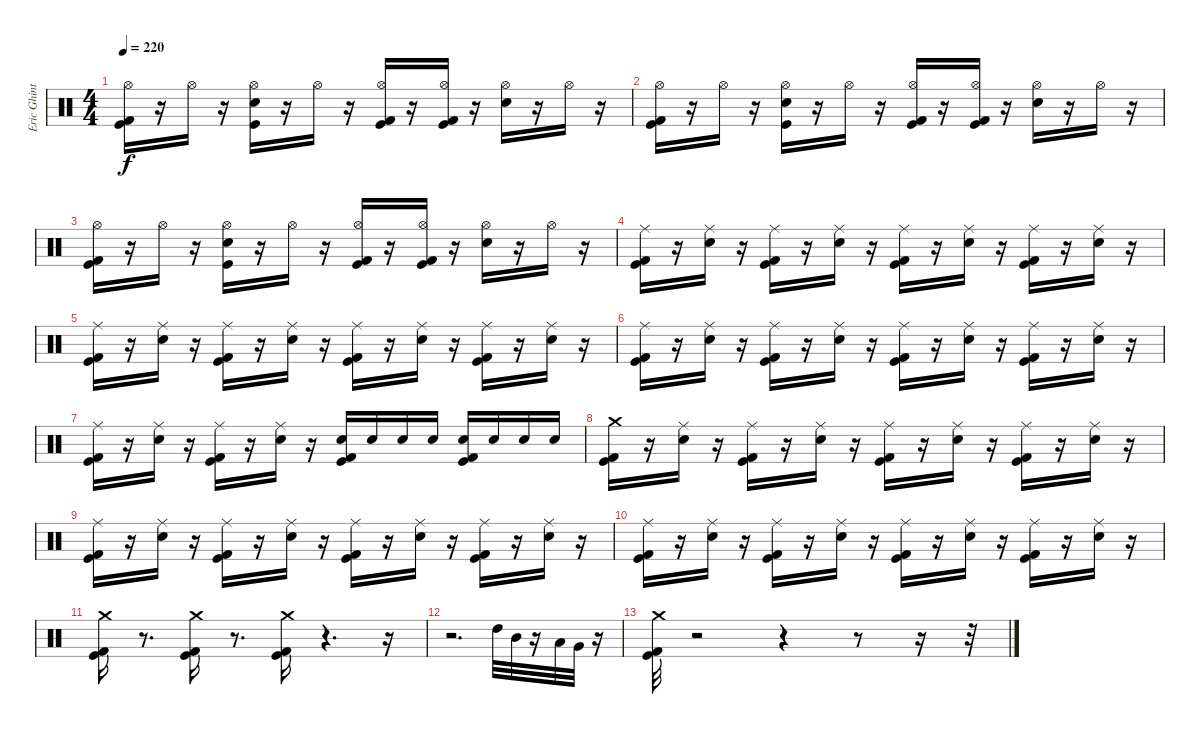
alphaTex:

\track ("Eric Ghint" "Eric Ghint") {instrument percussion}
\staff {score}
\articulation defaults
\ts (4 4)
\tempo 220
\clef neutral
\ks c
("Kick (hit) 2" "Hi-Hat (open)" "Kick (hit)").16{dy f} r.16 "Hi-Hat (open)".16 r.16 ("Snare (hit) 2" "Hi-Hat (open)" "Kick (hit)").16 r.16 "Hi-Hat (open)".16 r.16 ("Kick (hit) 2" "Hi-Hat (open)" "Kick (hit)").16 r.16 ("Kick (hit) 2" "Hi-Hat (open)" "Kick (hit)").16 r.16 ("Snare (hit) 2" "Hi-Hat (open)").16 r.16 "Hi-Hat (open)".16 r.16 |
("Kick (hit) 2" "Hi-Hat (open)" "Kick (hit)").16 r.16 "Hi-Hat (open)".16 r.16 ("Snare (hit) 2" "Hi-Hat (open)" "Kick (hit)").16 r.16 "Hi-Hat (open)".16 r.16 ("Kick (hit) 2" "Hi-Hat (open)" "Kick (hit)").16 r.16 ("Kick (hit) 2" "Hi-Hat (open)" "Kick (hit)").16 r.16 ("Snare (hit) 2" "Hi-Hat (open)").16 r.16 "Hi-Hat (open)".16 r.16 |
("Kick (hit) 2" "Hi-Hat (open)" "Kick (hit)").16 r.16 "Hi-Hat (open)".16 r.16 ("Snare (hit) 2" "Hi-Hat (open)" "Kick (hit)").16 r.16 "Hi-Hat (open)".16 r.16 ("Kick (hit) 2" "Hi-Hat (open)" "Kick (hit)").16 r.16 ("Kick (hit) 2" "Hi-Hat (open)" "Kick (hit)").16 r.16 ("Snare (hit) 2" "Hi-Hat (open)").16 r.16 "Hi-Hat (open)".16 r.16 |
("Ride (middle)" "Kick (hit) 2" "Kick (hit)").16 r.16 ("Snare (hit) 2" "Ride (middle)").16 r.16 ("Kick (hit) 2" "Ride (middle)" "Kick (hit)").16 r.16 ("Snare (hit) 2" "Ride (middle)").16 r.16 ("Kick (hit) 2" "Ride (middle)" "Kick (hit)").16 r.16 ("Snare (hit) 2" "Ride (middle)").16 r.16 ("Kick (hit) 2" "Ride (middle)" "Kick (hit)").16 r.16 ("Snare (hit) 2" "Ride (middle)").16 r.16 |
("Ride (middle)" "Kick (hit) 2" "Kick (hit)").16 r.16 ("Snare (hit) 2" "Ride (middle)").16 r.16 ("Kick (hit) 2" "Ride (middle)" "Kick (hit)").16 r.16 ("Snare (hit) 2" "Ride (middle)").16 r.16 ("Kick (hit) 2" "Ride (middle)" "Kick (hit)").16 r.16 ("Snare (hit) 2" "Ride (middle)").16 r.16 ("Kick (hit) 2" "Ride (middle)" "Kick (hit)").16 r.16 ("Snare (hit) 2" "Ride (middle)").16 r.16 |
("Ride (middle)" "Kick (hit) 2" "Kick (hit)").16 r.16 ("Snare (hit) 2" "Ride (middle)").16 r.16 ("Kick (hit) 2" "Ride (middle)" "Kick (hit)").16 r.16 ("Snare (hit) 2" "Ride (middle)").16 r.16 ("Kick (hit) 2" "Ride (middle)" "Kick (hit)").16 r.16 ("Snare (hit) 2" "Ride (middle)").16 r.16 ("Kick (hit) 2" "Ride (middle)" "Kick (hit)").16 r.16 ("Snare (hit) 2" "Ride (middle)").16 r.16 |
("Ride (middle)" "Kick (hit) 2" "Kick (hit)").16 r.16 ("Snare (hit) 2" "Ride (middle)").16 r.16 ("Kick (hit) 2" "Ride (middle)" "Kick (hit)").16 r.16 ("Snare (hit) 2" "Ride (middle)").16 r.16 ("Kick (hit) 2" "Snare (hit) 2" "Kick (hit)").16 "Snare (hit) 2".16 "Snare (hit) 2".16 "Snare (hit) 2".16 ("Kick (hit) 2" "Snare (hit) 2" "Kick (hit)").16 "Snare (hit) 2".16 "Snare (hit) 2".16 "Snare (hit) 2".16 |
("Crash medium (hit)" "Kick (hit) 2" "Kick (hit)").16 r.16 ("Snare (hit) 2" "Ride (middle)").16 r.16 ("Kick (hit) 2" "Ride (middle)" "Kick (hit)").16 r.16 ("Snare (hit) 2" "Ride (middle)").16 r.16 ("Kick (hit) 2" "Ride (middle)" "Kick (hit)").16 r.16 ("Snare (hit) 2" "Ride (middle)").16 r.16 ("Kick (hit) 2" "Ride (middle)" "Kick (hit)").16 r.16 ("Snare (hit) 2" "Ride (middle)").16 r.16 |
("Ride (middle)" "Kick (hit) 2" "Kick (hit)").16 r.16 ("Snare (hit) 2" "Ride (middle)").16 r.16 ("Kick (hit) 2" "Ride (middle)" "Kick (hit)").16 r.16 ("Snare (hit) 2" "Ride (middle)").16 r.16 ("Kick (hit) 2" "Ride (middle)" "Kick (hit)").16 r.16 ("Snare (hit) 2" "Ride (middle)").16 r.16 ("Kick (hit) 2" "Ride (middle)" "Kick (hit)").16 r.16 ("Snare (hit) 2" "Ride (middle)").16 r.16 |
("Ride (middle)" "Kick (hit) 2" "Kick (hit)").16 r.16 ("Ride (middle)" "Snare (hit) 2").16 r.16 ("Ride (middle)" "Kick (hit) 2" "Kick (hit)").16 r.16 ("Ride (middle)" "Snare (hit) 2").16 r.16 ("Ride (middle)" "Kick (hit) 2" "Kick (hit)").16 r.16 ("Ride (middle)" "Snare (hit) 2").16 r.16 ("Ride (middle)" "Kick (hit) 2" "Kick (hit)").16 r.16 ("Ride (middle)" "Snare (hit) 2").16 r.16 |
("Crash medium (hit)" "Kick (hit) 2" "Kick (hit)").16 r.8{d} ("Kick (hit) 2" "Crash medium (hit)" "Kick (hit)").16 r.8{d} ("Kick (hit) 2" "Crash medium (hit)" "Kick (hit)").16 r.4{d} r.16 |
r.2{d} "High Tom (hit)".32 "Mid Tom (hit)".32 r.16 "Low Tom (hit)".32 "Very Low Tom (hit)".32 r.16 |
("Crash medium (hit)" "Kick (hit) 2" "Kick (hit)").32 r.2 r.4 r.8 r.16 r.32
